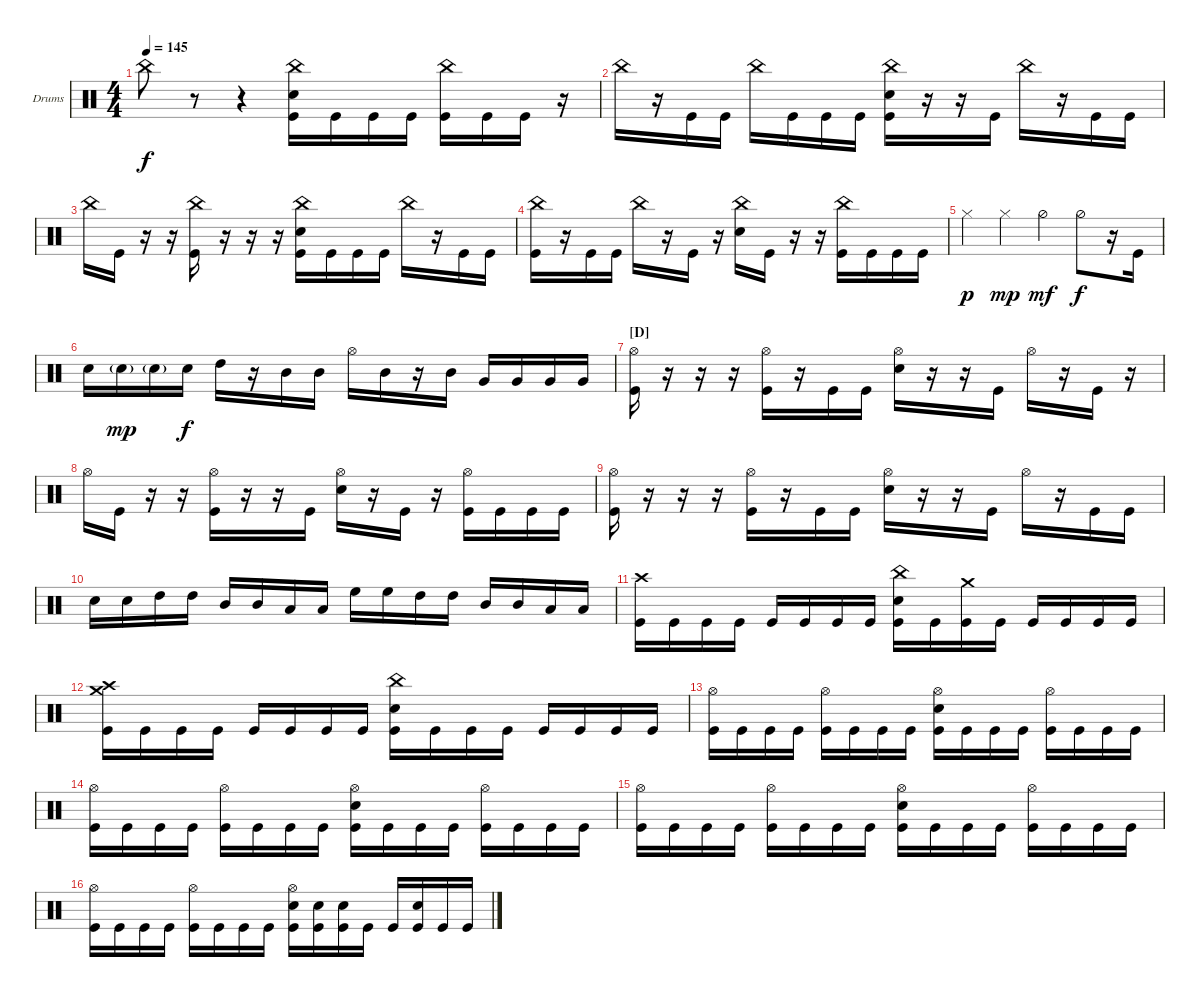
\defaultSystemsLayout 4
\bracketExtendMode groupsimilarinstruments
\firstSystemTrackNameOrientation horizontal
\otherSystemsTrackNameOrientation horizontal
\track ("Drumkit" "Drums") {instrument percussion}
\staff {score}
\articulation defaults
\ts (4 4)
\tempo 145
\clef neutral
\ks c "China (hit)".8{dy f}
r.8 r.4 ("Snare (hit) 2" "Kick (hit)" "China (hit)").16 "Kick (hit)".16 "Kick (hit)".16 "Kick (hit)".16 ("Kick (hit)" "China (hit)").16 "Kick (hit)".16 "Kick (hit)".16 r.16 |
"China (hit)".16 r.16 "Kick (hit)".16 "Kick (hit)".16 "China (hit)".16 "Kick (hit)".16 "Kick (hit)".16 "Kick (hit)".16 ("China (hit)" "Snare (hit) 2" "Kick (hit)").16 r.16 r.16 "Kick (hit)".16 "China (hit)".16 r.16 "Kick (hit)".16 "Kick (hit)".16 |
"China (hit)".16 "Kick (hit)".16 r.16 r.16 ("Kick (hit)" "China (hit)").16 r.16 r.16 r.16 ("China (hit)" "Snare (hit) 2" "Kick (hit)").16 "Kick (hit)".16 "Kick (hit)".16 "Kick (hit)".16 "China (hit)".16 r.16 "Kick (hit)".16 "Kick (hit)".16 |
("Kick (hit)" "China (hit)").16 r.16 "Kick (hit)".16 "Kick (hit)".16 "China (hit)".16 r.16 "Kick (hit)".16 r.16 ("China (hit)" "Snare (hit) 2").16 "Kick (hit)".16 r.16 r.16 ("China (hit)" "Kick (hit)").16 "Kick (hit)".16 "Kick (hit)".16 "Kick (hit)".16 |
"Hi-Hat (closed)".4{dy p} "Hi-Hat (closed)".4{dy mp} "Hi-Hat (half)".4{dy mf} "Hi-Hat (half)".8{dy f} r.16 "Kick (hit)".16 |
"Snare (hit) 2".16 "Snare (hit) 2"{g}.16{dy mp} "Snare (hit) 2"{g}.16 "Snare (hit) 2".16{dy f} "High Tom (hit)".16 r.16 "Mid Tom (hit)".16 "Mid Tom (hit)".16 "Hi-Hat (open)".16 "Mid Tom (hit)".16 r.16 "Mid Tom (hit)".16 "Very Low Tom (hit)".16 "Very Low Tom (hit)".16 "Very Low Tom (hit)".16 "Very Low Tom (hit)".16 |
\section ("D" "")
("Hi-Hat (open)" "Kick (hit)").16 r.16 r.16 r.16 ("Hi-Hat (open)" "Kick (hit)").16 r.16 "Kick (hit)".16 "Kick (hit)".16 ("Hi-Hat (open)" "Snare (hit) 2").16 r.16 r.16 "Kick (hit)".16 "Hi-Hat (open)".16 r.16 "Kick (hit)".16 r.16 |
"Hi-Hat (open)".16 "Kick (hit)".16 r.16 r.16 ("Hi-Hat (open)" "Kick (hit)").16 r.16 r.16 "Kick (hit)".16 ("Hi-Hat (open)" "Snare (hit) 2").16 r.16 "Kick (hit)".16 r.16 ("Hi-Hat (open)" "Kick (hit)").16 "Kick (hit)".16 "Kick (hit)".16 "Kick (hit)".16 |
("Hi-Hat (open)" "Kick (hit)").16 r.16 r.16 r.16 ("Hi-Hat (open)" "Kick (hit)").16 r.16 "Kick (hit)".16 "Kick (hit)".16 ("Hi-Hat (open)" "Snare (hit) 2").16 r.16 r.16 "Kick (hit)".16 "Hi-Hat (open)".16 r.16 "Kick (hit)".16 "Kick (hit)".16 |
"Snare (hit) 2".16 "Snare (hit) 2".16 "High Tom (hit)".16 "High Tom (hit)".16 "Mid Tom (hit)".16 "Mid Tom (hit)".16 "Low Tom (hit)".16 "Low Tom (hit)".16 "High Floor Tom (hit)".16 "High Floor Tom (hit)".16 "High Tom (hit)".16 "High Tom (hit)".16 "Mid Tom (hit)".16 "Mid Tom (hit)".16 "Low Tom (hit)".16 "Low Tom (hit)".16 |
("Kick (hit)" "Crash high (hit)").16 "Kick (hit)".16 "Kick (hit)".16 "Kick (hit)".16 "Kick (hit)".16 "Kick (hit)".16 "Kick (hit)".16 "Kick (hit)".16 ("Kick (hit)" "China (hit)" "Snare (hit) 2").16 "Kick (hit)".16 ("Kick (hit)" "Crash medium (hit)").16 "Kick (hit)".16 "Kick (hit)".16 "Kick (hit)".16 "Kick (hit)".16 "Kick (hit)".16 |
("Kick (hit)" "Crash high (hit)" "Crash medium (hit)").16 "Kick (hit)".16 "Kick (hit)".16 "Kick (hit)".16 "Kick (hit)".16 "Kick (hit)".16 "Kick (hit)".16 "Kick (hit)".16 ("Kick (hit)" "China (hit)" "Snare (hit) 2").16 "Kick (hit)".16 "Kick (hit)".16 "Kick (hit)".16 "Kick (hit)".16 "Kick (hit)".16 "Kick (hit)".16 "Kick (hit)".16 |
("Kick (hit)" "Hi-Hat (open)").16 "Kick (hit)".16 "Kick (hit)".16 "Kick (hit)".16 ("Kick (hit)" "Hi-Hat (open)").16 "Kick (hit)".16 "Kick (hit)".16 "Kick (hit)".16 ("Kick (hit)" "Hi-Hat (open)" "Snare (hit) 2").16 "Kick (hit)".16 "Kick (hit)".16 "Kick (hit)".16 ("Kick (hit)" "Hi-Hat (open)").16 "Kick (hit)".16 "Kick (hit)".16 "Kick (hit)".16 |
("Kick (hit)" "Hi-Hat (open)").16 "Kick (hit)".16 "Kick (hit)".16 "Kick (hit)".16 ("Kick (hit)" "Hi-Hat (open)").16 "Kick (hit)".16 "Kick (hit)".16 "Kick (hit)".16 ("Kick (hit)" "Hi-Hat (open)" "Snare (hit) 2").16 "Kick (hit)".16 "Kick (hit)".16 "Kick (hit)".16 ("Kick (hit)" "Hi-Hat (open)").16 "Kick (hit)".16 "Kick (hit)".16 "Kick (hit)".16 |
("Kick (hit)" "Hi-Hat (open)").16 "Kick (hit)".16 "Kick (hit)".16 "Kick (hit)".16 ("Kick (hit)" "Hi-Hat (open)").16 "Kick (hit)".16 "Kick (hit)".16 "Kick (hit)".16 ("Kick (hit)" "Hi-Hat (open)" "Snare (hit) 2").16 "Kick (hit)".16 "Kick (hit)".16 "Kick (hit)".16 ("Kick (hit)" "Hi-Hat (open)").16 "Kick (hit)".16 "Kick (hit)".16 "Kick (hit)".16 |
("Kick (hit)" "Hi-Hat (open)").16 "Kick (hit)".16 "Kick (hit)".16 "Kick (hit)".16 ("Kick (hit)" "Hi-Hat (open)").16 "Kick (hit)".16 "Kick (hit)".16 "Kick (hit)".16 ("Kick (hit)" "Snare (hit) 2" "Hi-Hat (open)").16 ("Kick (hit)" "Snare (hit) 2").16 ("Kick (hit)" "Snare (hit) 2").16 "Kick (hit)".16 "Kick (hit)".16 ("Kick (hit)" "Snare (hit) 2").16 "Kick (hit)".16 "Kick (hit)".16
